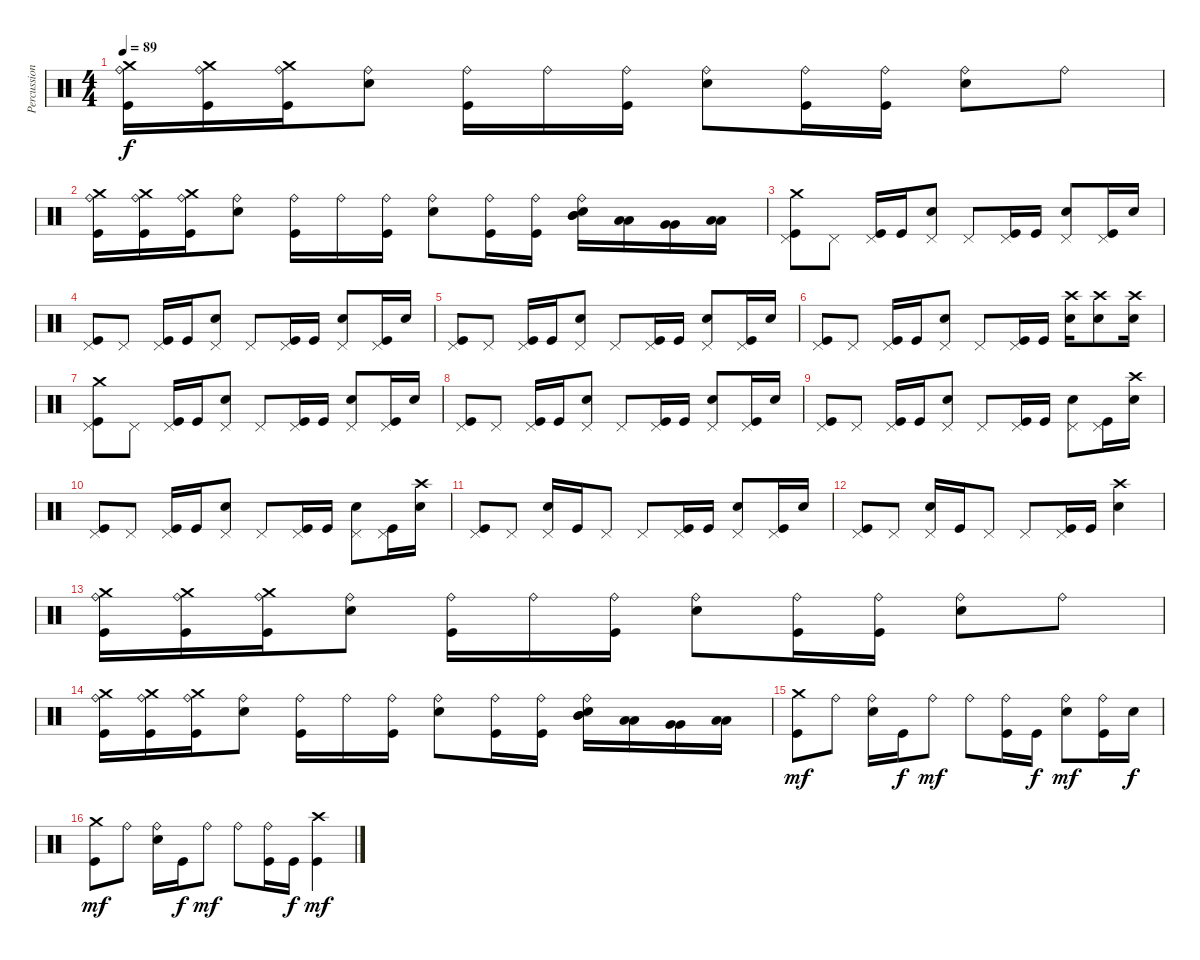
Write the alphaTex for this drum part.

\track ("Percussion" "Percussion") {instrument percussion}
\staff {score}
\articulation defaults
\ts (4 4)
\tempo 89
\clef neutral
\ks c
("Ride (bell)" "Crash medium (hit)" "Kick (hit)").16{dy f} ("Ride (bell)" "Crash medium (hit)" "Kick (hit)").16 ("Ride (bell)" "Crash medium (hit)" "Kick (hit)").16 ("Ride (bell)" "Snare (hit) 2").8 ("Ride (bell)" "Kick (hit)").16 "Ride (bell)".16 ("Ride (bell)" "Kick (hit)").16 ("Ride (bell)" "Snare (hit) 2").8 ("Ride (bell)" "Kick (hit)").16 ("Ride (bell)" "Kick (hit)").16 ("Ride (bell)" "Snare (hit) 2").8 "Ride (bell)".8 |
("Ride (bell)" "Crash medium (hit)" "Kick (hit)").16 ("Ride (bell)" "Crash medium (hit)" "Kick (hit)").16 ("Ride (bell)" "Crash medium (hit)" "Kick (hit)").16 ("Ride (bell)" "Snare (hit) 2").8 ("Ride (bell)" "Kick (hit)").16 "Ride (bell)".16 ("Ride (bell)" "Kick (hit)").16 ("Ride (bell)" "Snare (hit) 2").8 ("Ride (bell)" "Kick (hit)").16 ("Ride (bell)" "Kick (hit)").16 ("Ride (bell)" "Snare (hit) 2" "Mid Tom (hit)" "Mid Tom (hit)").16 ("Low Tom (hit)" "Low Tom (hit)").16 ("Very Low Tom (hit)" "Very Low Tom (hit)").16 ("Low Floor Tom (hit)" "Low Floor Tom (hit)").16 |
("Crash medium (hit)" "Pedal Hi-Hat (hit)" "Kick (hit)").8 "Pedal Hi-Hat (hit)".8 ("Pedal Hi-Hat (hit)" "Kick (hit)").16 "Kick (hit)".16 ("Pedal Hi-Hat (hit)" "Snare (hit) 2").8 "Pedal Hi-Hat (hit)".8 ("Pedal Hi-Hat (hit)" "Kick (hit)").16 "Kick (hit)".16 ("Pedal Hi-Hat (hit)" "Snare (hit) 2").8 ("Pedal Hi-Hat (hit)" "Kick (hit)").16 "Snare (hit) 2".16 |
("Pedal Hi-Hat (hit)" "Kick (hit)").8 "Pedal Hi-Hat (hit)".8 ("Pedal Hi-Hat (hit)" "Kick (hit)").16 "Kick (hit)".16 ("Pedal Hi-Hat (hit)" "Snare (hit) 2").8 "Pedal Hi-Hat (hit)".8 ("Pedal Hi-Hat (hit)" "Kick (hit)").16 "Kick (hit)".16 ("Pedal Hi-Hat (hit)" "Snare (hit) 2").8 ("Pedal Hi-Hat (hit)" "Kick (hit)").16 "Snare (hit) 2".16 |
("Pedal Hi-Hat (hit)" "Kick (hit)").8 "Pedal Hi-Hat (hit)".8 ("Pedal Hi-Hat (hit)" "Kick (hit)").16 "Kick (hit)".16 ("Pedal Hi-Hat (hit)" "Snare (hit) 2").8 "Pedal Hi-Hat (hit)".8 ("Pedal Hi-Hat (hit)" "Kick (hit)").16 "Kick (hit)".16 ("Pedal Hi-Hat (hit)" "Snare (hit) 2").8 ("Pedal Hi-Hat (hit)" "Kick (hit)").16 "Snare (hit) 2".16 |
("Pedal Hi-Hat (hit)" "Kick (hit)").8 "Pedal Hi-Hat (hit)".8 ("Pedal Hi-Hat (hit)" "Kick (hit)").16 "Kick (hit)".16 ("Pedal Hi-Hat (hit)" "Snare (hit) 2").8 "Pedal Hi-Hat (hit)".8 ("Pedal Hi-Hat (hit)" "Kick (hit)").16 "Kick (hit)".16 ("Crash high (hit)" "Snare (hit) 2").16 ("Crash high (hit)" "Snare (hit) 2").8 ("Crash high (hit)" "Snare (hit) 2").16 |
("Crash medium (hit)" "Pedal Hi-Hat (hit)" "Kick (hit)").8 "Pedal Hi-Hat (hit)".8 ("Pedal Hi-Hat (hit)" "Kick (hit)").16 "Kick (hit)".16 ("Pedal Hi-Hat (hit)" "Snare (hit) 2").8 "Pedal Hi-Hat (hit)".8 ("Pedal Hi-Hat (hit)" "Kick (hit)").16 "Kick (hit)".16 ("Pedal Hi-Hat (hit)" "Snare (hit) 2").8 ("Pedal Hi-Hat (hit)" "Kick (hit)").16 "Snare (hit) 2".16 |
("Pedal Hi-Hat (hit)" "Kick (hit)").8 "Pedal Hi-Hat (hit)".8 ("Pedal Hi-Hat (hit)" "Kick (hit)").16 "Kick (hit)".16 ("Pedal Hi-Hat (hit)" "Snare (hit) 2").8 "Pedal Hi-Hat (hit)".8 ("Pedal Hi-Hat (hit)" "Kick (hit)").16 "Kick (hit)".16 ("Pedal Hi-Hat (hit)" "Snare (hit) 2").8 ("Pedal Hi-Hat (hit)" "Kick (hit)").16 "Snare (hit) 2".16 |
("Pedal Hi-Hat (hit)" "Kick (hit)").8 "Pedal Hi-Hat (hit)".8 ("Pedal Hi-Hat (hit)" "Kick (hit)").16 "Kick (hit)".16 ("Pedal Hi-Hat (hit)" "Snare (hit) 2").8 "Pedal Hi-Hat (hit)".8 ("Pedal Hi-Hat (hit)" "Kick (hit)").16 "Kick (hit)".16 ("Pedal Hi-Hat (hit)" "Snare (hit) 2").8 ("Pedal Hi-Hat (hit)" "Kick (hit)").16 ("Crash high (hit)" "Snare (hit) 2").16 |
("Pedal Hi-Hat (hit)" "Kick (hit)").8 "Pedal Hi-Hat (hit)".8 ("Pedal Hi-Hat (hit)" "Kick (hit)").16 "Kick (hit)".16 ("Pedal Hi-Hat (hit)" "Snare (hit) 2").8 "Pedal Hi-Hat (hit)".8 ("Pedal Hi-Hat (hit)" "Kick (hit)").16 "Kick (hit)".16 ("Pedal Hi-Hat (hit)" "Snare (hit) 2").8 ("Pedal Hi-Hat (hit)" "Kick (hit)").16 ("Crash high (hit)" "Snare (hit) 2").16 |
("Pedal Hi-Hat (hit)" "Kick (hit)").8 "Pedal Hi-Hat (hit)".8 ("Pedal Hi-Hat (hit)" "Snare (hit) 2").16 "Kick (hit)".16 "Pedal Hi-Hat (hit)".8 "Pedal Hi-Hat (hit)".8 ("Pedal Hi-Hat (hit)" "Kick (hit)").16 "Kick (hit)".16 ("Pedal Hi-Hat (hit)" "Snare (hit) 2").8 ("Pedal Hi-Hat (hit)" "Kick (hit)").16 "Snare (hit) 2".16 |
("Pedal Hi-Hat (hit)" "Kick (hit)").8 "Pedal Hi-Hat (hit)".8 ("Pedal Hi-Hat (hit)" "Snare (hit) 2").16 "Kick (hit)".16 "Pedal Hi-Hat (hit)".8 "Pedal Hi-Hat (hit)".8 ("Pedal Hi-Hat (hit)" "Kick (hit)").16 "Kick (hit)".16 ("Crash high (hit)" "Snare (hit) 2").4 |
("Ride (bell)" "Crash medium (hit)" "Kick (hit)").16 ("Ride (bell)" "Crash medium (hit)" "Kick (hit)").16 ("Ride (bell)" "Crash medium (hit)" "Kick (hit)").16 ("Ride (bell)" "Snare (hit) 2").8 ("Ride (bell)" "Kick (hit)").16 "Ride (bell)".16 ("Ride (bell)" "Kick (hit)").16 ("Ride (bell)" "Snare (hit) 2").8 ("Ride (bell)" "Kick (hit)").16 ("Ride (bell)" "Kick (hit)").16 ("Ride (bell)" "Snare (hit) 2").8 "Ride (bell)".8 |
("Ride (bell)" "Crash medium (hit)" "Kick (hit)").16 ("Ride (bell)" "Crash medium (hit)" "Kick (hit)").16 ("Ride (bell)" "Crash medium (hit)" "Kick (hit)").16 ("Ride (bell)" "Snare (hit) 2").8 ("Ride (bell)" "Kick (hit)").16 "Ride (bell)".16 ("Ride (bell)" "Kick (hit)").16 ("Ride (bell)" "Snare (hit) 2").8 ("Ride (bell)" "Kick (hit)").16 ("Ride (bell)" "Kick (hit)").16 ("Ride (bell)" "Snare (hit) 2" "Mid Tom (hit)" "Mid Tom (hit)").16 ("Low Tom (hit)" "Low Tom (hit)").16 ("Very Low Tom (hit)" "Very Low Tom (hit)").16 ("Low Floor Tom (hit)" "Low Floor Tom (hit)").16 |
("Crash medium (hit)" "Kick (hit)").8{dy mf} "Ride (bell)".8 ("Ride (bell)" "Snare (hit) 2").16 "Kick (hit)".16{dy f} "Ride (bell)".8{dy mf} "Ride (bell)".8 ("Ride (bell)" "Kick (hit)").16 "Kick (hit)".16{dy f} ("Ride (bell)" "Snare (hit) 2").8{dy mf} ("Ride (bell)" "Kick (hit)").16 "Snare (hit) 2".16{dy f} |
("Crash medium (hit)" "Kick (hit)").8{dy mf} "Ride (bell)".8 ("Ride (bell)" "Snare (hit) 2").16 "Kick (hit)".16{dy f} "Ride (bell)".8{dy mf} "Ride (bell)".8 ("Ride (bell)" "Kick (hit)").16 "Kick (hit)".16{dy f} ("Crash high (hit)" "Kick (hit)").4{dy mf}
